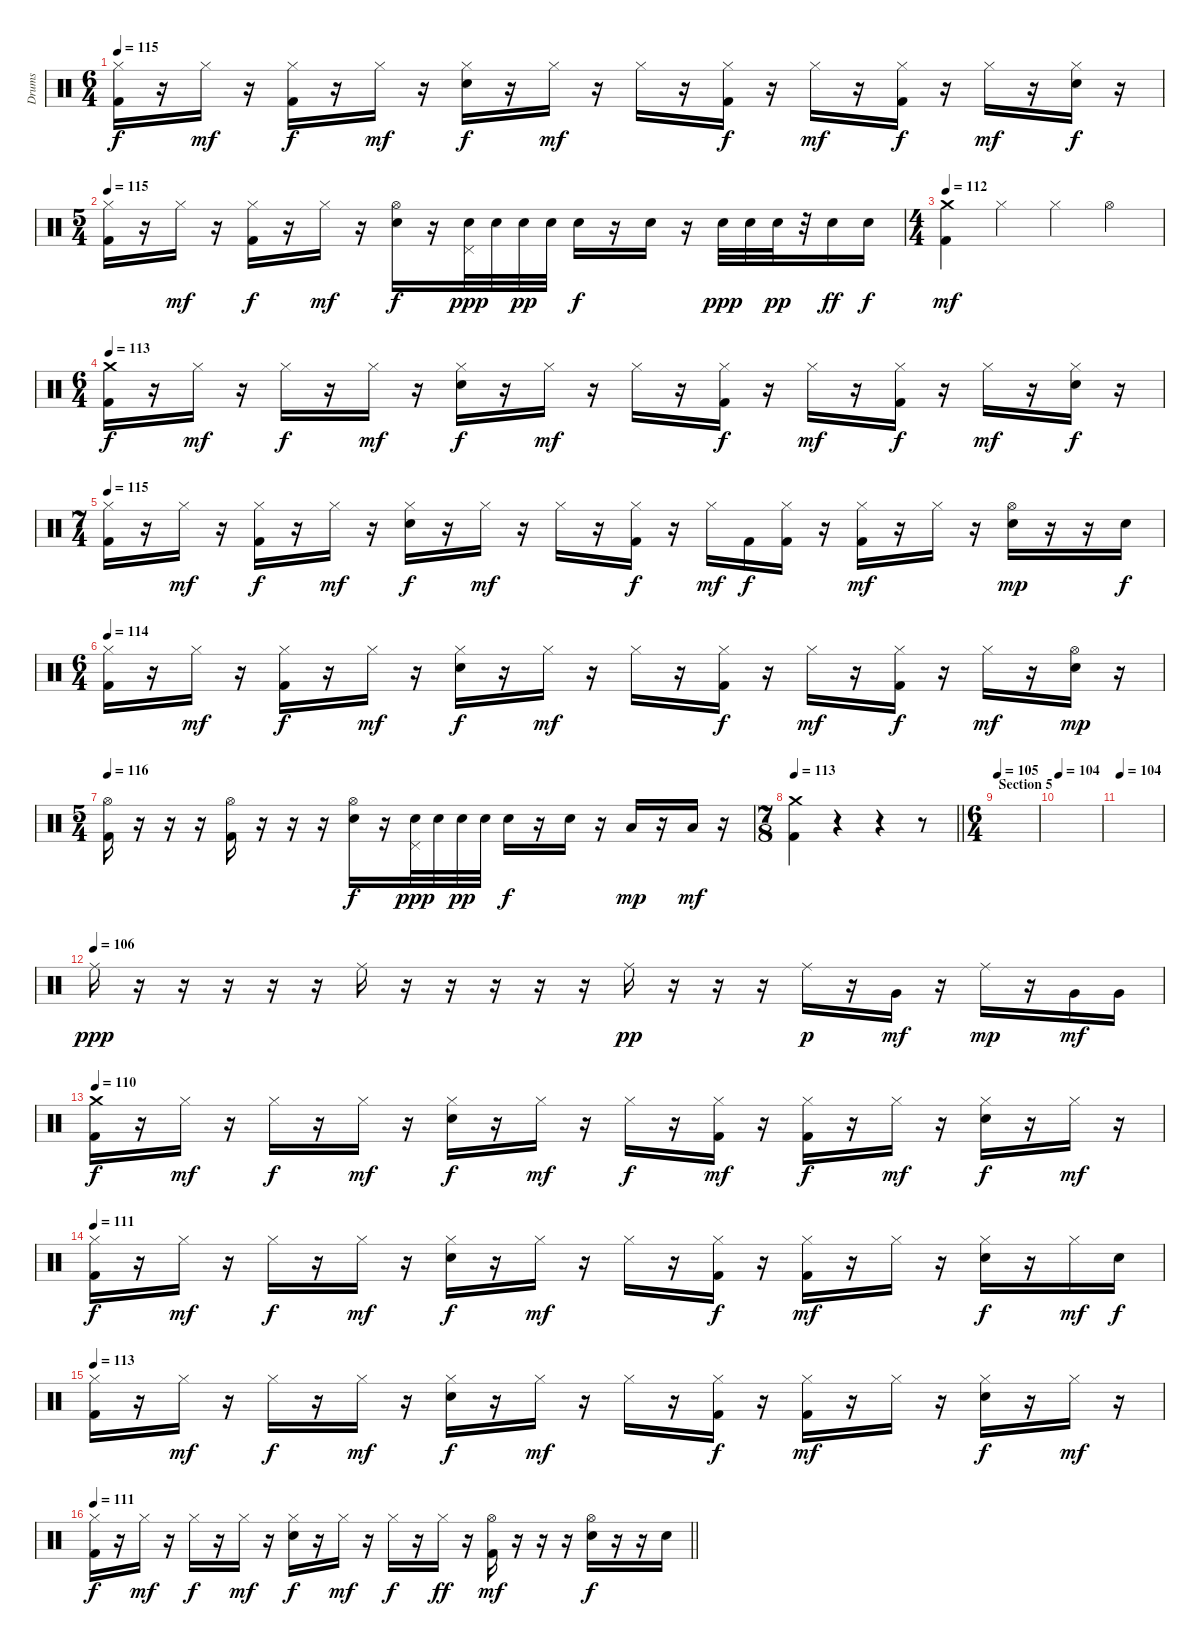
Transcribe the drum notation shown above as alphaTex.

\track ("Drums" "Drums") {instrument percussion}
\staff {score}
\articulation defaults
\ts (6 4)
\tempo 115
\clef neutral
\ks c
("Hi-Hat (closed)" "Kick (hit) 2").16{dy f} r.16 "Hi-Hat (closed)".16{dy mf} r.16 ("Hi-Hat (closed)" "Kick (hit) 2").16{dy f} r.16 "Hi-Hat (closed)".16{dy mf} r.16 ("Hi-Hat (closed)" "Electric Snare (hit)").16{dy f} r.16 "Hi-Hat (closed)".16{dy mf} r.16 "Hi-Hat (closed)".16 r.16 ("Hi-Hat (closed)" "Kick (hit) 2").16{dy f} r.16 "Hi-Hat (closed)".16{dy mf} r.16 ("Hi-Hat (closed)" "Kick (hit) 2").16{dy f} r.16 "Hi-Hat (closed)".16{dy mf} r.16 ("Hi-Hat (closed)" "Electric Snare (hit)").16{dy f} r.16 |
\ts (5 4)
\tempo 115
("Hi-Hat (closed)" "Kick (hit) 2").16 r.16 "Hi-Hat (closed)".16{dy mf} r.16 ("Hi-Hat (closed)" "Kick (hit) 2").16{dy f} r.16 "Hi-Hat (closed)".16{dy mf} r.16 ("Hi-Hat (open)" "Electric Snare (hit)").16{dy f} r.16 ("Pedal Hi-Hat (hit)" "Electric Snare (hit)").32{dy ppp} "Electric Snare (hit)".32 "Electric Snare (hit)".32{dy pp} "Electric Snare (hit)".32 "Electric Snare (hit)".16{dy f} r.16 "Electric Snare (hit)".16 r.16 "Electric Snare (hit)".32{dy ppp} "Electric Snare (hit)".32 "Electric Snare (hit)".32{dy pp} r.32 "Electric Snare (hit)".16{dy ff} "Electric Snare (hit)".16{dy f} |
\ts (4 4)
\tempo 112
("Crash medium (hit)" "Kick (hit) 2").4{dy mf} "Hi-Hat (closed)".4 "Hi-Hat (closed)".4 "Hi-Hat (open)".4 |
\ts (6 4)
\tempo 113
("Crash medium (hit)" "Kick (hit) 2").16{dy f} r.16 "Hi-Hat (closed)".16{dy mf} r.16 "Hi-Hat (closed)".16{dy f} r.16 "Hi-Hat (closed)".16{dy mf} r.16 ("Hi-Hat (closed)" "Electric Snare (hit)").16{dy f} r.16 "Hi-Hat (closed)".16{dy mf} r.16 "Hi-Hat (closed)".16 r.16 ("Hi-Hat (closed)" "Kick (hit) 2").16{dy f} r.16 "Hi-Hat (closed)".16{dy mf} r.16 ("Hi-Hat (closed)" "Kick (hit) 2").16{dy f} r.16 "Hi-Hat (closed)".16{dy mf} r.16 ("Hi-Hat (closed)" "Electric Snare (hit)").16{dy f} r.16 |
\ts (7 4)
\tempo 115
("Hi-Hat (closed)" "Kick (hit) 2").16 r.16 "Hi-Hat (closed)".16{dy mf} r.16 ("Hi-Hat (closed)" "Kick (hit) 2").16{dy f} r.16 "Hi-Hat (closed)".16{dy mf} r.16 ("Hi-Hat (closed)" "Electric Snare (hit)").16{dy f} r.16 "Hi-Hat (closed)".16{dy mf} r.16 "Hi-Hat (closed)".16 r.16 ("Hi-Hat (closed)" "Kick (hit) 2").16{dy f} r.16 "Hi-Hat (closed)".16{dy mf} "Kick (hit) 2".16{dy f} ("Hi-Hat (closed)" "Kick (hit) 2").16 r.16 ("Hi-Hat (closed)" "Kick (hit) 2").16{dy mf} r.16 "Hi-Hat (closed)".16 r.16 ("Hi-Hat (open)" "Electric Snare (hit)").16{dy mp} r.16 r.16 "Electric Snare (hit)".16{dy f} |
\ts (6 4)
\tempo 114
("Hi-Hat (closed)" "Kick (hit) 2").16 r.16 "Hi-Hat (closed)".16{dy mf} r.16 ("Hi-Hat (closed)" "Kick (hit) 2").16{dy f} r.16 "Hi-Hat (closed)".16{dy mf} r.16 ("Hi-Hat (closed)" "Electric Snare (hit)").16{dy f} r.16 "Hi-Hat (closed)".16{dy mf} r.16 "Hi-Hat (closed)".16 r.16 ("Hi-Hat (closed)" "Kick (hit) 2").16{dy f} r.16 "Hi-Hat (closed)".16{dy mf} r.16 ("Hi-Hat (closed)" "Kick (hit) 2").16{dy f} r.16 "Hi-Hat (closed)".16{dy mf} r.16 ("Hi-Hat (open)" "Electric Snare (hit)").16{dy mp} r.16 |
\ts (5 4)
\tempo 116
("Hi-Hat (open)" "Kick (hit) 2").16 r.16 r.16 r.16 ("Hi-Hat (open)" "Kick (hit) 2").16 r.16 r.16 r.16 ("Hi-Hat (open)" "Electric Snare (hit)").16{dy f} r.16 ("Pedal Hi-Hat (hit)" "Electric Snare (hit)").32{dy ppp} "Electric Snare (hit)".32 "Electric Snare (hit)".32{dy pp} "Electric Snare (hit)".32 "Electric Snare (hit)".16{dy f} r.16 "Electric Snare (hit)".16 r.16 "Low Tom (hit)".16{dy mp} r.16 "Low Tom (hit)".16{dy mf} r.16 |
\ts (7 8)
\tempo 113
\barLineRight lightlight
("Crash medium (hit)" "Kick (hit) 2").4 r.4 r.4 r.8 |
\ts (6 4)
\section ("" "Section 5")
\tempo 105
|
\tempo 104
|
\tempo 104
|
\tempo (106)
"Ride (middle)".16{dy ppp} r.16 r.16 r.16 r.16 r.16 "Ride (middle)".16 r.16 r.16 r.16 r.16 r.16 "Ride (middle)".16{dy pp} r.16 r.16 r.16 "Ride (middle)".16{dy p} r.16 "Very Low Tom (hit)".16{dy mf} r.16 "Ride (middle)".16{dy mp} r.16 "Very Low Tom (hit)".16{dy mf} "Very Low Tom (hit)".16 |
\tempo 110
("Crash medium (hit)" "Kick (hit) 2").16{dy f} r.16 "Hi-Hat (closed)".16{dy mf} r.16 "Hi-Hat (closed)".16{dy f} r.16 "Hi-Hat (closed)".16{dy mf} r.16 ("Hi-Hat (closed)" "Electric Snare (hit)").16{dy f} r.16 "Hi-Hat (closed)".16{dy mf} r.16 "Hi-Hat (closed)".16{dy f} r.16 ("Hi-Hat (closed)" "Kick (hit) 2").16{dy mf} r.16 ("Hi-Hat (closed)" "Kick (hit) 2").16{dy f} r.16 "Hi-Hat (closed)".16{dy mf} r.16 ("Hi-Hat (closed)" "Electric Snare (hit)").16{dy f} r.16 "Hi-Hat (closed)".16{dy mf} r.16 |
\tempo 111
("Hi-Hat (closed)" "Kick (hit) 2").16{dy f} r.16 "Hi-Hat (closed)".16{dy mf} r.16 "Hi-Hat (closed)".16{dy f} r.16 "Hi-Hat (closed)".16{dy mf} r.16 ("Hi-Hat (closed)" "Electric Snare (hit)").16{dy f} r.16 "Hi-Hat (closed)".16{dy mf} r.16 "Hi-Hat (closed)".16 r.16 ("Hi-Hat (closed)" "Kick (hit) 2").16{dy f} r.16 ("Hi-Hat (closed)" "Kick (hit) 2").16{dy mf} r.16 "Hi-Hat (closed)".16 r.16 ("Hi-Hat (closed)" "Electric Snare (hit)").16{dy f} r.16 "Hi-Hat (closed)".16{dy mf} "Electric Snare (hit)".16{dy f} |
\tempo 113
("Hi-Hat (closed)" "Kick (hit) 2").16 r.16 "Hi-Hat (closed)".16{dy mf} r.16 "Hi-Hat (closed)".16{dy f} r.16 "Hi-Hat (closed)".16{dy mf} r.16 ("Hi-Hat (closed)" "Electric Snare (hit)").16{dy f} r.16 "Hi-Hat (closed)".16{dy mf} r.16 "Hi-Hat (closed)".16 r.16 ("Hi-Hat (closed)" "Kick (hit) 2").16{dy f} r.16 ("Hi-Hat (closed)" "Kick (hit) 2").16{dy mf} r.16 "Hi-Hat (closed)".16 r.16 ("Hi-Hat (closed)" "Electric Snare (hit)").16{dy f} r.16 "Hi-Hat (closed)".16{dy mf} r.16 |
\tempo 111
\barLineRight lightlight
("Hi-Hat (closed)" "Kick (hit) 2").16{dy f} r.16 "Hi-Hat (closed)".16{dy mf} r.16 "Hi-Hat (closed)".16{dy f} r.16 "Hi-Hat (closed)".16{dy mf} r.16 ("Hi-Hat (closed)" "Electric Snare (hit)").16{dy f} r.16 "Hi-Hat (closed)".16{dy mf} r.16 "Hi-Hat (closed)".16{dy f} r.16 "Hi-Hat (closed)".16{dy ff} r.16 ("Hi-Hat (open)" "Kick (hit) 2").16{dy mf} r.16 r.16 r.16 ("Hi-Hat (open)" "Electric Snare (hit)").16{dy f} r.16 r.16 "Electric Snare (hit)".16
